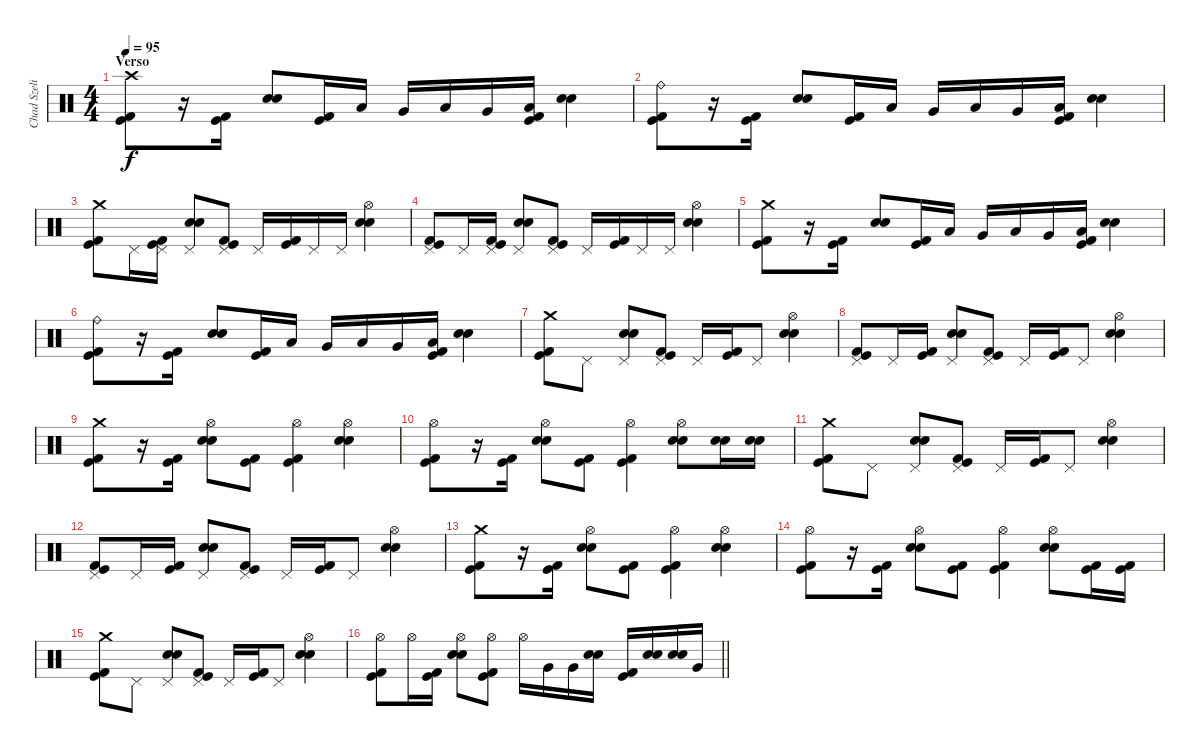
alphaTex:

\track ("Chad Szeliga" "Chad Szeli") {instrument percussion}
\staff {score}
\articulation defaults
\ts (4 4)
\section ("" "Verso")
\tempo 95
\clef neutral
\ks c
("Crash high (hit)" "Kick (hit) 2" "Kick (hit)").8{dy f} r.16 ("Kick (hit) 2" "Kick (hit)").16{beam Down} ("Snare (hit) 2" "Snare (hit) 2").8 ("Kick (hit) 2" "Kick (hit)").16 "Low Tom (hit)".16 "Very Low Tom (hit)".16 "Low Tom (hit)".16 "Very Low Tom (hit)".16 ("Kick (hit) 2" "Kick (hit)" "Low Tom (hit)").16 ("Snare (hit) 2" "Snare (hit) 2").4 |
("Ride (bell)" "Kick (hit) 2" "Kick (hit)").8 r.16 ("Kick (hit) 2" "Kick (hit)").16{beam Down} ("Snare (hit) 2" "Snare (hit) 2").8 ("Kick (hit) 2" "Kick (hit)").16 "Low Tom (hit)".16 "Very Low Tom (hit)".16 "Low Tom (hit)".16 "Very Low Tom (hit)".16 ("Kick (hit) 2" "Kick (hit)" "Low Tom (hit)").16 ("Snare (hit) 2" "Snare (hit) 2").4 |
("Crash medium (hit)" "Kick (hit) 2" "Kick (hit)").8 "Pedal Hi-Hat (hit)".16 ("Kick (hit) 2" "Kick (hit)" "Pedal Hi-Hat (hit)").16 ("Snare (hit) 2" "Snare (hit) 2" "Pedal Hi-Hat (hit)").8 ("Kick (hit) 2" "Kick (hit)" "Pedal Hi-Hat (hit)").8 "Pedal Hi-Hat (hit)".16 ("Kick (hit) 2" "Kick (hit)").16 "Pedal Hi-Hat (hit)".16 "Pedal Hi-Hat (hit)".16 ("Snare (hit) 2" "Snare (hit) 2" "Hi-Hat (open)").4 |
("Kick (hit) 2" "Kick (hit)" "Pedal Hi-Hat (hit)").8 "Pedal Hi-Hat (hit)".16 ("Kick (hit) 2" "Kick (hit)" "Pedal Hi-Hat (hit)").16 ("Snare (hit) 2" "Snare (hit) 2" "Pedal Hi-Hat (hit)").8 ("Kick (hit) 2" "Kick (hit)" "Pedal Hi-Hat (hit)").8 "Pedal Hi-Hat (hit)".16 ("Kick (hit) 2" "Kick (hit)").16 "Pedal Hi-Hat (hit)".16 "Pedal Hi-Hat (hit)".16 ("Snare (hit) 2" "Snare (hit) 2" "Hi-Hat (open)").4 |
("Crash medium (hit)" "Kick (hit) 2" "Kick (hit)").8 r.16 ("Kick (hit) 2" "Kick (hit)").16{beam Down} ("Snare (hit) 2" "Snare (hit) 2").8 ("Kick (hit) 2" "Kick (hit)").16 "Low Tom (hit)".16 "Very Low Tom (hit)".16 "Low Tom (hit)".16 "Very Low Tom (hit)".16 ("Kick (hit) 2" "Kick (hit)" "Low Tom (hit)").16 ("Snare (hit) 2" "Snare (hit) 2").4 |
("Ride (bell)" "Kick (hit) 2" "Kick (hit)").8 r.16 ("Kick (hit) 2" "Kick (hit)").16{beam Down} ("Snare (hit) 2" "Snare (hit) 2").8 ("Kick (hit) 2" "Kick (hit)").16 "Low Tom (hit)".16 "Very Low Tom (hit)".16 "Low Tom (hit)".16 "Very Low Tom (hit)".16 ("Kick (hit) 2" "Kick (hit)" "Low Tom (hit)").16 ("Snare (hit) 2" "Snare (hit) 2").4 |
("Crash medium (hit)" "Kick (hit) 2" "Kick (hit)").8 "Pedal Hi-Hat (hit)".8 ("Snare (hit) 2" "Snare (hit) 2" "Pedal Hi-Hat (hit)").8 ("Kick (hit) 2" "Kick (hit)" "Pedal Hi-Hat (hit)").8 "Pedal Hi-Hat (hit)".16 ("Kick (hit) 2" "Kick (hit)").16 "Pedal Hi-Hat (hit)".8 ("Snare (hit) 2" "Snare (hit) 2" "Hi-Hat (open)").4 |
("Kick (hit) 2" "Kick (hit)" "Pedal Hi-Hat (hit)").8 "Pedal Hi-Hat (hit)".16 ("Kick (hit) 2" "Kick (hit)").16 ("Snare (hit) 2" "Snare (hit) 2" "Pedal Hi-Hat (hit)").8 ("Kick (hit) 2" "Kick (hit)" "Pedal Hi-Hat (hit)").8 "Pedal Hi-Hat (hit)".16 ("Kick (hit) 2" "Kick (hit)").16 "Pedal Hi-Hat (hit)".8 ("Snare (hit) 2" "Snare (hit) 2" "Hi-Hat (open)").4 |
("Crash medium (hit)" "Kick (hit) 2" "Kick (hit)").8 r.16 ("Kick (hit) 2" "Kick (hit)").16{beam Down} ("Snare (hit) 2" "Snare (hit) 2" "Hi-Hat (open)").8 ("Kick (hit) 2" "Kick (hit)").8 ("Kick (hit) 2" "Kick (hit)" "Hi-Hat (open)").4 ("Snare (hit) 2" "Snare (hit) 2" "Hi-Hat (open)").4 |
("Kick (hit) 2" "Kick (hit)" "Hi-Hat (open)").8 r.16 ("Kick (hit) 2" "Kick (hit)").16{beam Down} ("Snare (hit) 2" "Snare (hit) 2" "Hi-Hat (open)").8 ("Kick (hit) 2" "Kick (hit)").8 ("Kick (hit) 2" "Kick (hit)" "Hi-Hat (open)").4 ("Snare (hit) 2" "Snare (hit) 2" "Hi-Hat (open)").8 ("Snare (hit) 2" "Snare (hit) 2").16 ("Snare (hit) 2" "Snare (hit) 2").16 |
("Crash medium (hit)" "Kick (hit) 2" "Kick (hit)").8 "Pedal Hi-Hat (hit)".8 ("Snare (hit) 2" "Snare (hit) 2" "Pedal Hi-Hat (hit)").8 ("Kick (hit) 2" "Kick (hit)" "Pedal Hi-Hat (hit)").8 "Pedal Hi-Hat (hit)".16 ("Kick (hit) 2" "Kick (hit)").16 "Pedal Hi-Hat (hit)".8 ("Snare (hit) 2" "Snare (hit) 2" "Hi-Hat (open)").4 |
("Kick (hit) 2" "Kick (hit)" "Pedal Hi-Hat (hit)").8 "Pedal Hi-Hat (hit)".16 ("Kick (hit) 2" "Kick (hit)").16 ("Snare (hit) 2" "Snare (hit) 2" "Pedal Hi-Hat (hit)").8 ("Kick (hit) 2" "Kick (hit)" "Pedal Hi-Hat (hit)").8 "Pedal Hi-Hat (hit)".16 ("Kick (hit) 2" "Kick (hit)").16 "Pedal Hi-Hat (hit)".8 ("Snare (hit) 2" "Snare (hit) 2" "Hi-Hat (open)").4 |
("Crash medium (hit)" "Kick (hit) 2" "Kick (hit)").8 r.16 ("Kick (hit) 2" "Kick (hit)").16{beam Down} ("Snare (hit) 2" "Snare (hit) 2" "Hi-Hat (open)").8 ("Kick (hit) 2" "Kick (hit)").8 ("Kick (hit) 2" "Kick (hit)" "Hi-Hat (open)").4 ("Snare (hit) 2" "Snare (hit) 2" "Hi-Hat (open)").4 |
("Kick (hit) 2" "Kick (hit)" "Hi-Hat (open)").8 r.16 ("Kick (hit) 2" "Kick (hit)").16{beam Down} ("Snare (hit) 2" "Snare (hit) 2" "Hi-Hat (open)").8 ("Kick (hit) 2" "Kick (hit)").8 ("Kick (hit) 2" "Kick (hit)" "Hi-Hat (open)").4 ("Snare (hit) 2" "Snare (hit) 2" "Hi-Hat (open)").8 ("Kick (hit) 2" "Kick (hit)").16 ("Kick (hit) 2" "Kick (hit)").16 |
("Crash medium (hit)" "Kick (hit) 2" "Kick (hit)").8 "Pedal Hi-Hat (hit)".8 ("Snare (hit) 2" "Snare (hit) 2" "Pedal Hi-Hat (hit)").8 ("Kick (hit) 2" "Kick (hit)" "Pedal Hi-Hat (hit)").8 "Pedal Hi-Hat (hit)".16 ("Kick (hit) 2" "Kick (hit)").16 "Pedal Hi-Hat (hit)".8 ("Snare (hit) 2" "Snare (hit) 2" "Hi-Hat (open)").4 |
\barLineRight lightlight
("Kick (hit) 2" "Kick (hit)" "Hi-Hat (open)").8 "Hi-Hat (open)".16 ("Kick (hit) 2" "Kick (hit)").16 ("Snare (hit) 2" "Snare (hit) 2" "Hi-Hat (open)").8 ("Kick (hit) 2" "Kick (hit)" "Hi-Hat (open)").8 "Hi-Hat (open)".16 "Very Low Tom (hit)".16 "Very Low Tom (hit)".16 ("Snare (hit) 2" "Snare (hit) 2").16 ("Kick (hit) 2" "Kick (hit)").16 ("Snare (hit) 2" "Snare (hit) 2").16 ("Snare (hit) 2" "Snare (hit) 2").16 "Very Low Tom (hit)".16
